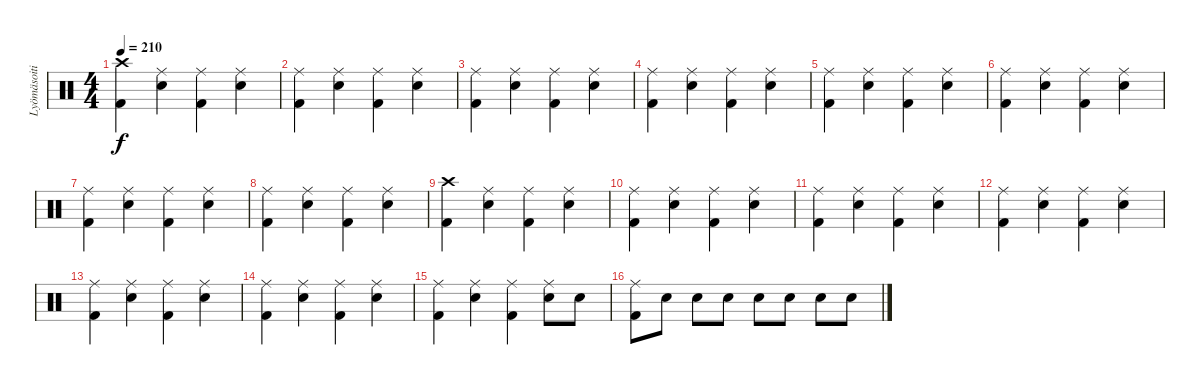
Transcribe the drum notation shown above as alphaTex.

\track ("Lyömäsoitin" "Lyömäsoiti") {instrument percussion}
\staff {score}
\articulation defaults
\ts (4 4)
\tempo 210
\clef neutral
\ks c
("Crash high (hit)" "Kick (hit) 2").4{dy f} ("Ride (middle)" "Electric Snare (hit)").4 ("Ride (middle)" "Kick (hit) 2").4 ("Ride (middle)" "Electric Snare (hit)").4 |
("Ride (middle)" "Kick (hit) 2").4 ("Ride (middle)" "Electric Snare (hit)").4 ("Ride (middle)" "Kick (hit) 2").4 ("Ride (middle)" "Electric Snare (hit)").4 |
("Ride (middle)" "Kick (hit) 2").4 ("Ride (middle)" "Electric Snare (hit)").4 ("Ride (middle)" "Kick (hit) 2").4 ("Ride (middle)" "Electric Snare (hit)").4 |
("Ride (middle)" "Kick (hit) 2").4 ("Ride (middle)" "Electric Snare (hit)").4 ("Ride (middle)" "Kick (hit) 2").4 ("Ride (middle)" "Electric Snare (hit)").4 |
("Ride (middle)" "Kick (hit) 2").4 ("Ride (middle)" "Electric Snare (hit)").4 ("Ride (middle)" "Kick (hit) 2").4 ("Ride (middle)" "Electric Snare (hit)").4 |
("Ride (middle)" "Kick (hit) 2").4 ("Ride (middle)" "Electric Snare (hit)").4 ("Ride (middle)" "Kick (hit) 2").4 ("Ride (middle)" "Electric Snare (hit)").4 |
("Ride (middle)" "Kick (hit) 2").4 ("Ride (middle)" "Electric Snare (hit)").4 ("Ride (middle)" "Kick (hit) 2").4 ("Ride (middle)" "Electric Snare (hit)").4 |
("Ride (middle)" "Kick (hit) 2").4 ("Ride (middle)" "Electric Snare (hit)").4 ("Ride (middle)" "Kick (hit) 2").4 ("Ride (middle)" "Electric Snare (hit)").4 |
("Crash high (hit)" "Kick (hit) 2").4 ("Ride (middle)" "Electric Snare (hit)").4 ("Ride (middle)" "Kick (hit) 2").4 ("Ride (middle)" "Electric Snare (hit)").4 |
("Ride (middle)" "Kick (hit) 2").4 ("Ride (middle)" "Electric Snare (hit)").4 ("Ride (middle)" "Kick (hit) 2").4 ("Ride (middle)" "Electric Snare (hit)").4 |
("Ride (middle)" "Kick (hit) 2").4 ("Ride (middle)" "Electric Snare (hit)").4 ("Ride (middle)" "Kick (hit) 2").4 ("Ride (middle)" "Electric Snare (hit)").4 |
("Ride (middle)" "Kick (hit) 2").4 ("Ride (middle)" "Electric Snare (hit)").4 ("Ride (middle)" "Kick (hit) 2").4 ("Ride (middle)" "Electric Snare (hit)").4 |
("Ride (middle)" "Kick (hit) 2").4 ("Ride (middle)" "Electric Snare (hit)").4 ("Ride (middle)" "Kick (hit) 2").4 ("Ride (middle)" "Electric Snare (hit)").4 |
("Ride (middle)" "Kick (hit) 2").4 ("Ride (middle)" "Electric Snare (hit)").4 ("Ride (middle)" "Kick (hit) 2").4 ("Ride (middle)" "Electric Snare (hit)").4 |
("Ride (middle)" "Kick (hit) 2").4 ("Ride (middle)" "Electric Snare (hit)").4 ("Ride (middle)" "Kick (hit) 2").4 ("Ride (middle)" "Electric Snare (hit)").8 "Electric Snare (hit)".8 |
("Ride (middle)" "Kick (hit) 2").8 "Electric Snare (hit)".8 "Electric Snare (hit)".8 "Electric Snare (hit)".8 "Electric Snare (hit)".8 "Electric Snare (hit)".8 "Electric Snare (hit)".8 "Electric Snare (hit)".8
